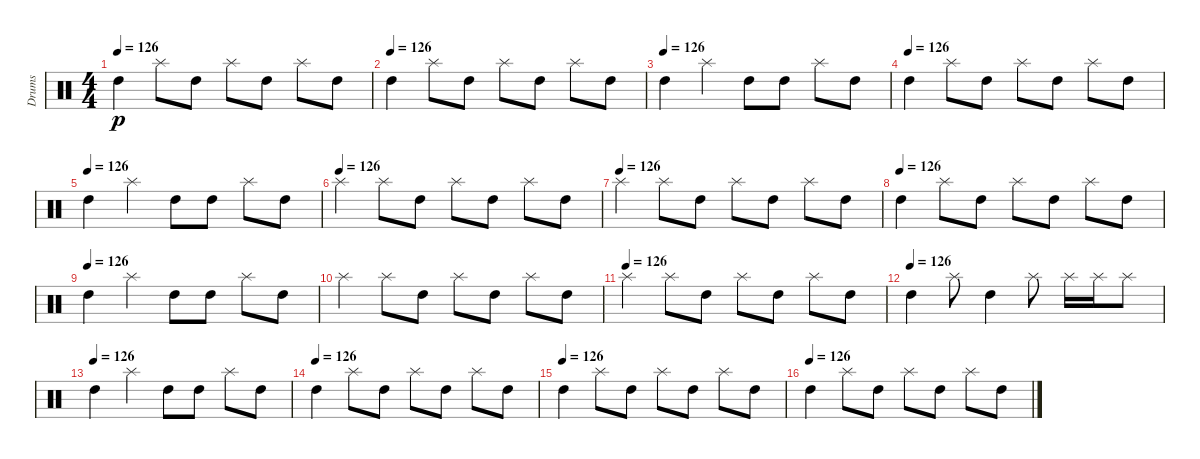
\track ("Drums" "Drums") {instrument percussion}
\staff {score}
\articulation defaults
\ts (4 4)
\tempo 126
\clef neutral
\ks c "High Tom (hit)".4{dy p} "Splash (hit)".8 "High Tom (hit)".8 "Splash (hit)".8 "High Tom (hit)".8 "Splash (hit)".8 "High Tom (hit)".8
|
\tempo (126)
"High Tom (hit)".4 "Splash (hit)".8 "High Tom (hit)".8 "Splash (hit)".8 "High Tom (hit)".8 "Splash (hit)".8 "High Tom (hit)".8 |
\tempo (126)
"High Tom (hit)".4 "Splash (hit)".4 "High Tom (hit)".8 "High Tom (hit)".8 "Splash (hit)".8 "High Tom (hit)".8 |
\tempo (126)
"High Tom (hit)".4 "Splash (hit)".8 "High Tom (hit)".8 "Splash (hit)".8 "High Tom (hit)".8 "Splash (hit)".8 "High Tom (hit)".8 |
\tempo (126)
"High Tom (hit)".4 "Splash (hit)".4 "High Tom (hit)".8 "High Tom (hit)".8 "Splash (hit)".8 "High Tom (hit)".8 |
\tempo (126)
"Splash (hit)".4 "Splash (hit)".8 "High Tom (hit)".8 "Splash (hit)".8 "High Tom (hit)".8 "Splash (hit)".8 "High Tom (hit)".8 |
\tempo (126)
"Splash (hit)".4 "Splash (hit)".8 "High Tom (hit)".8 "Splash (hit)".8 "High Tom (hit)".8 "Splash (hit)".8 "High Tom (hit)".8 |
\tempo (126)
"High Tom (hit)".4 "Splash (hit)".8 "High Tom (hit)".8 "Splash (hit)".8 "High Tom (hit)".8 "Splash (hit)".8 "High Tom (hit)".8 |
\tempo (126)
"High Tom (hit)".4 "Splash (hit)".4 "High Tom (hit)".8 "High Tom (hit)".8 "Splash (hit)".8 "High Tom (hit)".8 |
"Splash (hit)".4 "Splash (hit)".8 "High Tom (hit)".8 "Splash (hit)".8 "High Tom (hit)".8 "Splash (hit)".8 "High Tom (hit)".8 |
\tempo (126)
"Splash (hit)".4 "Splash (hit)".8 "High Tom (hit)".8 "Splash (hit)".8 "High Tom (hit)".8 "Splash (hit)".8 "High Tom (hit)".8 |
\tempo (126)
"High Tom (hit)".4 "Splash (hit)".8 "High Tom (hit)".4 "Splash (hit)".8 "Splash (hit)".16 "Splash (hit)".16 "Splash (hit)".8 |
\tempo (126)
"High Tom (hit)".4 "Splash (hit)".4 "High Tom (hit)".8 "High Tom (hit)".8 "Splash (hit)".8 "High Tom (hit)".8 |
\tempo (126)
"High Tom (hit)".4 "Splash (hit)".8 "High Tom (hit)".8 "Splash (hit)".8 "High Tom (hit)".8 "Splash (hit)".8 "High Tom (hit)".8 |
\tempo (126)
"High Tom (hit)".4 "Splash (hit)".8 "High Tom (hit)".8 "Splash (hit)".8 "High Tom (hit)".8 "Splash (hit)".8 "High Tom (hit)".8 |
\tempo (126)
"High Tom (hit)".4 "Splash (hit)".8 "High Tom (hit)".8 "Splash (hit)".8 "High Tom (hit)".8 "Splash (hit)".8 "High Tom (hit)".8
